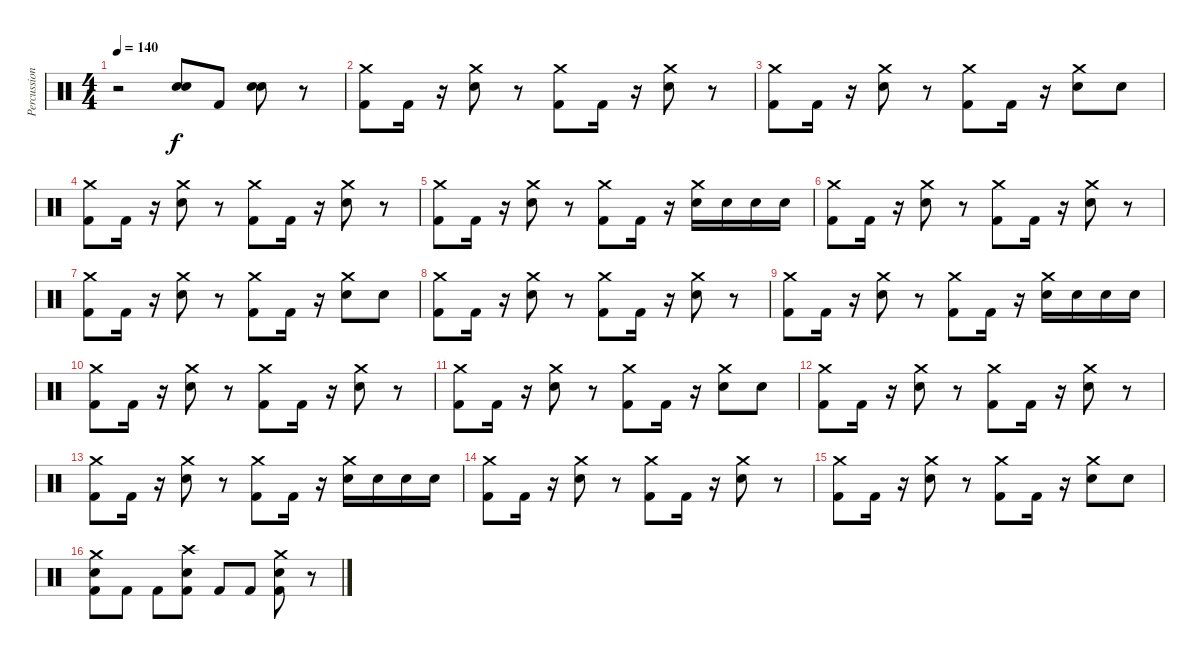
\track ("Percussion" "Percussion") {instrument percussion}
\staff {score}
\articulation defaults
\ts (4 4)
\tempo 140
\clef neutral
\ks c
r.2{dy f} ("Snare (hit) 2" "Snare (hit) 2").8 "Kick (hit) 2".8 ("Snare (hit) 2" "Snare (hit) 2").8 r.8 |
("Crash medium (hit)" "Kick (hit) 2").8 "Kick (hit) 2".16 r.16 ("Crash medium (hit)" "Snare (hit) 2").8 r.8 ("Crash medium (hit)" "Kick (hit) 2").8 "Kick (hit) 2".16 r.16 ("Crash medium (hit)" "Snare (hit) 2").8 r.8 |
("Crash medium (hit)" "Kick (hit) 2").8 "Kick (hit) 2".16 r.16 ("Crash medium (hit)" "Snare (hit) 2").8 r.8 ("Crash medium (hit)" "Kick (hit) 2").8 "Kick (hit) 2".16 r.16 ("Crash medium (hit)" "Snare (hit) 2").8 "Snare (hit) 2".8 |
("Crash medium (hit)" "Kick (hit) 2").8 "Kick (hit) 2".16 r.16 ("Crash medium (hit)" "Snare (hit) 2").8 r.8 ("Crash medium (hit)" "Kick (hit) 2").8 "Kick (hit) 2".16 r.16 ("Crash medium (hit)" "Snare (hit) 2").8 r.8 |
("Crash medium (hit)" "Kick (hit) 2").8 "Kick (hit) 2".16 r.16 ("Crash medium (hit)" "Snare (hit) 2").8 r.8 ("Crash medium (hit)" "Kick (hit) 2").8 "Kick (hit) 2".16 r.16 ("Crash medium (hit)" "Snare (hit) 2").16 "Snare (hit) 2".16 "Snare (hit) 2".16 "Snare (hit) 2".16 |
("Crash medium (hit)" "Kick (hit) 2").8 "Kick (hit) 2".16 r.16 ("Crash medium (hit)" "Snare (hit) 2").8 r.8 ("Crash medium (hit)" "Kick (hit) 2").8 "Kick (hit) 2".16 r.16 ("Crash medium (hit)" "Snare (hit) 2").8 r.8 |
("Crash medium (hit)" "Kick (hit) 2").8 "Kick (hit) 2".16 r.16 ("Crash medium (hit)" "Snare (hit) 2").8 r.8 ("Crash medium (hit)" "Kick (hit) 2").8 "Kick (hit) 2".16 r.16 ("Crash medium (hit)" "Snare (hit) 2").8 "Snare (hit) 2".8 |
("Crash medium (hit)" "Kick (hit) 2").8 "Kick (hit) 2".16 r.16 ("Crash medium (hit)" "Snare (hit) 2").8 r.8 ("Crash medium (hit)" "Kick (hit) 2").8 "Kick (hit) 2".16 r.16 ("Crash medium (hit)" "Snare (hit) 2").8 r.8 |
("Crash medium (hit)" "Kick (hit) 2").8 "Kick (hit) 2".16 r.16 ("Crash medium (hit)" "Snare (hit) 2").8 r.8 ("Crash medium (hit)" "Kick (hit) 2").8 "Kick (hit) 2".16 r.16 ("Crash medium (hit)" "Snare (hit) 2").16 "Snare (hit) 2".16 "Snare (hit) 2".16 "Snare (hit) 2".16 |
("Crash medium (hit)" "Kick (hit) 2").8 "Kick (hit) 2".16 r.16 ("Crash medium (hit)" "Snare (hit) 2").8 r.8 ("Crash medium (hit)" "Kick (hit) 2").8 "Kick (hit) 2".16 r.16 ("Crash medium (hit)" "Snare (hit) 2").8 r.8 |
("Crash medium (hit)" "Kick (hit) 2").8 "Kick (hit) 2".16 r.16 ("Crash medium (hit)" "Snare (hit) 2").8 r.8 ("Crash medium (hit)" "Kick (hit) 2").8 "Kick (hit) 2".16 r.16 ("Crash medium (hit)" "Snare (hit) 2").8 "Snare (hit) 2".8 |
("Crash medium (hit)" "Kick (hit) 2").8 "Kick (hit) 2".16 r.16 ("Crash medium (hit)" "Snare (hit) 2").8 r.8 ("Crash medium (hit)" "Kick (hit) 2").8 "Kick (hit) 2".16 r.16 ("Crash medium (hit)" "Snare (hit) 2").8 r.8 |
("Crash medium (hit)" "Kick (hit) 2").8 "Kick (hit) 2".16 r.16 ("Crash medium (hit)" "Snare (hit) 2").8 r.8 ("Crash medium (hit)" "Kick (hit) 2").8 "Kick (hit) 2".16 r.16 ("Crash medium (hit)" "Snare (hit) 2").16 "Snare (hit) 2".16 "Snare (hit) 2".16 "Snare (hit) 2".16 |
("Crash medium (hit)" "Kick (hit) 2").8 "Kick (hit) 2".16 r.16 ("Crash medium (hit)" "Snare (hit) 2").8 r.8 ("Crash medium (hit)" "Kick (hit) 2").8 "Kick (hit) 2".16 r.16 ("Crash medium (hit)" "Snare (hit) 2").8 r.8 |
("Crash medium (hit)" "Kick (hit) 2").8 "Kick (hit) 2".16 r.16 ("Crash medium (hit)" "Snare (hit) 2").8 r.8 ("Crash medium (hit)" "Kick (hit) 2").8 "Kick (hit) 2".16 r.16 ("Crash medium (hit)" "Snare (hit) 2").8 "Snare (hit) 2".8 |
("Crash medium (hit)" "Snare (hit) 2" "Kick (hit) 2").8 "Kick (hit) 2".8 "Kick (hit) 2".8 ("Crash high (hit)" "Snare (hit) 2" "Kick (hit) 2").8 "Kick (hit) 2".8 "Kick (hit) 2".8 ("Crash medium (hit)" "Snare (hit) 2" "Kick (hit) 2").8 r.8
